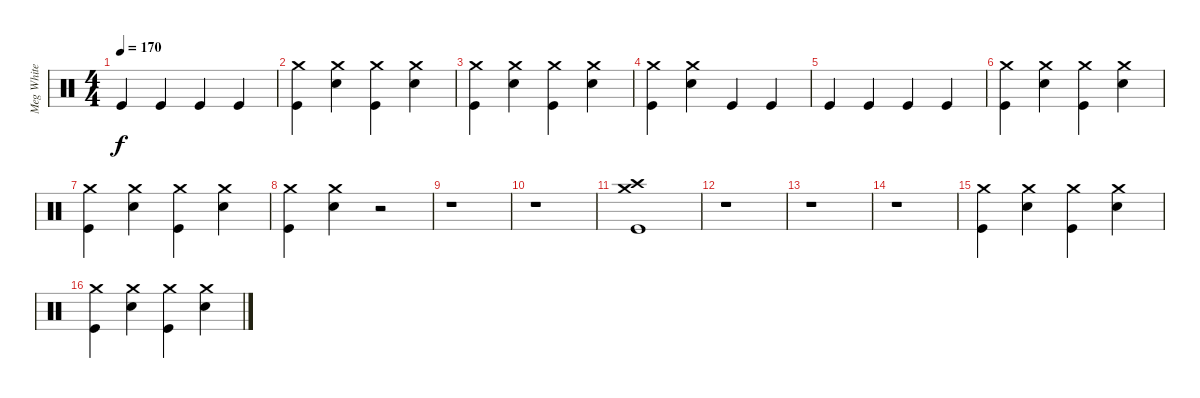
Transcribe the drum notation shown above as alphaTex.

\track ("Meg White" "Meg White") {instrument percussion}
\staff {score}
\articulation defaults
\ts (4 4)
\tempo 170
\clef neutral
\ks c "Kick (hit)".4{dy f} "Kick (hit)".4 "Kick (hit)".4 "Kick (hit)".4
|
("Kick (hit)" "Crash medium (hit)").4 ("Snare (hit) 2" "Crash medium (hit)").4 ("Kick (hit)" "Crash medium (hit)").4 ("Snare (hit) 2" "Crash medium (hit)").4 |
("Kick (hit)" "Crash medium (hit)").4 ("Snare (hit) 2" "Crash medium (hit)").4 ("Kick (hit)" "Crash medium (hit)").4 ("Snare (hit) 2" "Crash medium (hit)").4 |
("Kick (hit)" "Crash medium (hit)").4 ("Snare (hit) 2" "Crash medium (hit)").4 "Kick (hit)".4 "Kick (hit)".4 |
"Kick (hit)".4 "Kick (hit)".4 "Kick (hit)".4 "Kick (hit)".4 |
("Kick (hit)" "Crash medium (hit)").4 ("Snare (hit) 2" "Crash medium (hit)").4 ("Kick (hit)" "Crash medium (hit)").4 ("Snare (hit) 2" "Crash medium (hit)").4 |
("Kick (hit)" "Crash medium (hit)").4 ("Snare (hit) 2" "Crash medium (hit)").4 ("Kick (hit)" "Crash medium (hit)").4 ("Snare (hit) 2" "Crash medium (hit)").4 |
("Kick (hit)" "Crash medium (hit)").4 ("Snare (hit) 2" "Crash medium (hit)").4 r.2 |
r.1 |
r.1 |
("Kick (hit)" "Crash high (hit)" "Crash medium (hit)").1 |
r.1 |
r.1 |
r.1 |
("Kick (hit)" "Crash medium (hit)").4 ("Snare (hit) 2" "Crash medium (hit)").4 ("Kick (hit)" "Crash medium (hit)").4 ("Snare (hit) 2" "Crash medium (hit)").4 |
("Kick (hit)" "Crash medium (hit)").4 ("Snare (hit) 2" "Crash medium (hit)").4 ("Kick (hit)" "Crash medium (hit)").4 ("Snare (hit) 2" "Crash medium (hit)").4
